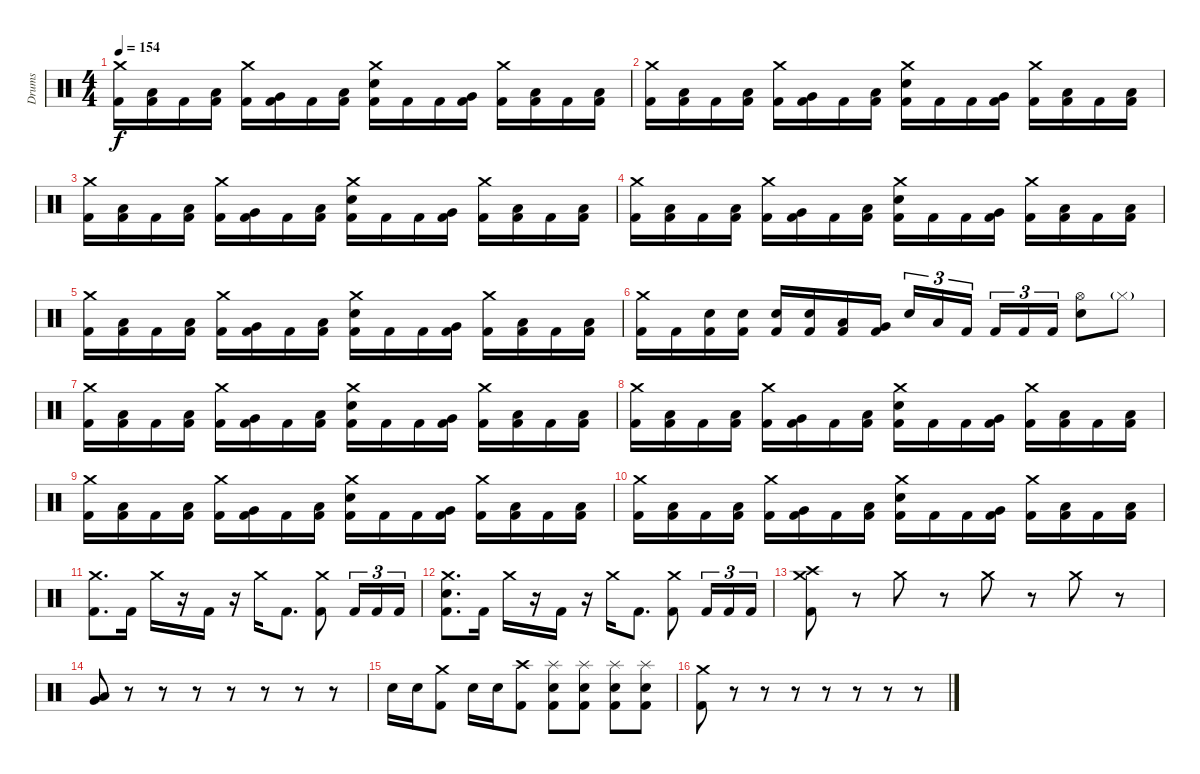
\track ("Drums" "Drums") {instrument percussion}
\staff {score}
\articulation defaults
\ts (4 4)
\tempo 154
\clef neutral
\ks c
("Crash medium (hit)" "Kick (hit) 2").16{dy f} ("Low Tom (hit)" "Kick (hit) 2").16 "Kick (hit) 2".16 ("Low Tom (hit)" "Kick (hit) 2").16 ("Crash medium (hit)" "Kick (hit) 2").16 ("Very Low Tom (hit)" "Kick (hit) 2").16 "Kick (hit) 2".16 ("Low Tom (hit)" "Kick (hit) 2").16 ("Crash medium (hit)" "Electric Snare (hit)" "Kick (hit) 2").16 "Kick (hit) 2".16 "Kick (hit) 2".16 ("Very Low Tom (hit)" "Kick (hit) 2").16 ("Crash medium (hit)" "Kick (hit) 2").16 ("Low Floor Tom (hit)" "Kick (hit) 2").16 "Kick (hit) 2".16 ("Low Tom (hit)" "Kick (hit) 2").16 |
("Crash medium (hit)" "Kick (hit) 2").16 ("Low Tom (hit)" "Kick (hit) 2").16 "Kick (hit) 2".16 ("Low Tom (hit)" "Kick (hit) 2").16 ("Crash medium (hit)" "Kick (hit) 2").16 ("Very Low Tom (hit)" "Kick (hit) 2").16 "Kick (hit) 2".16 ("Low Tom (hit)" "Kick (hit) 2").16 ("Crash medium (hit)" "Electric Snare (hit)" "Kick (hit) 2").16 "Kick (hit) 2".16 "Kick (hit) 2".16 ("Very Low Tom (hit)" "Kick (hit) 2").16 ("Crash medium (hit)" "Kick (hit) 2").16 ("Low Floor Tom (hit)" "Kick (hit) 2").16 "Kick (hit) 2".16 ("Low Tom (hit)" "Kick (hit) 2").16 |
("Crash medium (hit)" "Kick (hit) 2").16 ("Low Tom (hit)" "Kick (hit) 2").16 "Kick (hit) 2".16 ("Low Tom (hit)" "Kick (hit) 2").16 ("Crash medium (hit)" "Kick (hit) 2").16 ("Very Low Tom (hit)" "Kick (hit) 2").16 "Kick (hit) 2".16 ("Low Tom (hit)" "Kick (hit) 2").16 ("Crash medium (hit)" "Electric Snare (hit)" "Kick (hit) 2").16 "Kick (hit) 2".16 "Kick (hit) 2".16 ("Very Low Tom (hit)" "Kick (hit) 2").16 ("Crash medium (hit)" "Kick (hit) 2").16 ("Low Floor Tom (hit)" "Kick (hit) 2").16 "Kick (hit) 2".16 ("Low Tom (hit)" "Kick (hit) 2").16 |
("Crash medium (hit)" "Kick (hit) 2").16 ("Low Tom (hit)" "Kick (hit) 2").16 "Kick (hit) 2".16 ("Low Tom (hit)" "Kick (hit) 2").16 ("Crash medium (hit)" "Kick (hit) 2").16 ("Very Low Tom (hit)" "Kick (hit) 2").16 "Kick (hit) 2".16 ("Low Tom (hit)" "Kick (hit) 2").16 ("Crash medium (hit)" "Electric Snare (hit)" "Kick (hit) 2").16 "Kick (hit) 2".16 "Kick (hit) 2".16 ("Very Low Tom (hit)" "Kick (hit) 2").16 ("Crash medium (hit)" "Kick (hit) 2").16 ("Low Floor Tom (hit)" "Kick (hit) 2").16 "Kick (hit) 2".16 ("Low Tom (hit)" "Kick (hit) 2").16 |
("Crash medium (hit)" "Kick (hit) 2").16 ("Low Tom (hit)" "Kick (hit) 2").16 "Kick (hit) 2".16 ("Low Tom (hit)" "Kick (hit) 2").16 ("Crash medium (hit)" "Kick (hit) 2").16 ("Very Low Tom (hit)" "Kick (hit) 2").16 "Kick (hit) 2".16 ("Low Tom (hit)" "Kick (hit) 2").16 ("Crash medium (hit)" "Electric Snare (hit)" "Kick (hit) 2").16 "Kick (hit) 2".16 "Kick (hit) 2".16 ("Very Low Tom (hit)" "Kick (hit) 2").16 ("Crash medium (hit)" "Kick (hit) 2").16 ("Low Floor Tom (hit)" "Kick (hit) 2").16 "Kick (hit) 2".16 ("Low Tom (hit)" "Kick (hit) 2").16 |
("Crash medium (hit)" "Kick (hit) 2").16 "Kick (hit) 2".16 ("Electric Snare (hit)" "Kick (hit) 2").16 ("Electric Snare (hit)" "Kick (hit) 2").16 ("Electric Snare (hit)" "Kick (hit) 2").16 ("Electric Snare (hit)" "Kick (hit) 2").16 ("Low Tom (hit)" "Kick (hit) 2").16 ("Very Low Tom (hit)" "Kick (hit) 2").16 "Electric Snare (hit)".16{tu (3 2)} "Low Tom (hit)".16{tu (3 2)} "Kick (hit) 2".16{tu (3 2)} "Kick (hit) 2".16{tu (3 2)} "Kick (hit) 2".16{tu (3 2)} "Kick (hit) 2".16{tu (3 2)} ("Hi-Hat (open)" "Electric Snare (hit)").8 "Hi-Hat (closed)"{g}.8 |
("Crash medium (hit)" "Kick (hit) 2").16 ("Low Tom (hit)" "Kick (hit) 2").16 "Kick (hit) 2".16 ("Low Tom (hit)" "Kick (hit) 2").16 ("Crash medium (hit)" "Kick (hit) 2").16 ("Very Low Tom (hit)" "Kick (hit) 2").16 "Kick (hit) 2".16 ("Low Tom (hit)" "Kick (hit) 2").16 ("Crash medium (hit)" "Electric Snare (hit)" "Kick (hit) 2").16 "Kick (hit) 2".16 "Kick (hit) 2".16 ("Very Low Tom (hit)" "Kick (hit) 2").16 ("Crash medium (hit)" "Kick (hit) 2").16 ("Low Floor Tom (hit)" "Kick (hit) 2").16 "Kick (hit) 2".16 ("Low Tom (hit)" "Kick (hit) 2").16 |
("Crash medium (hit)" "Kick (hit) 2").16 ("Low Tom (hit)" "Kick (hit) 2").16 "Kick (hit) 2".16 ("Low Tom (hit)" "Kick (hit) 2").16 ("Crash medium (hit)" "Kick (hit) 2").16 ("Very Low Tom (hit)" "Kick (hit) 2").16 "Kick (hit) 2".16 ("Low Tom (hit)" "Kick (hit) 2").16 ("Crash medium (hit)" "Electric Snare (hit)" "Kick (hit) 2").16 "Kick (hit) 2".16 "Kick (hit) 2".16 ("Very Low Tom (hit)" "Kick (hit) 2").16 ("Crash medium (hit)" "Kick (hit) 2").16 ("Low Floor Tom (hit)" "Kick (hit) 2").16 "Kick (hit) 2".16 ("Low Tom (hit)" "Kick (hit) 2").16 |
("Crash medium (hit)" "Kick (hit) 2").16 ("Low Tom (hit)" "Kick (hit) 2").16 "Kick (hit) 2".16 ("Low Tom (hit)" "Kick (hit) 2").16 ("Crash medium (hit)" "Kick (hit) 2").16 ("Very Low Tom (hit)" "Kick (hit) 2").16 "Kick (hit) 2".16 ("Low Tom (hit)" "Kick (hit) 2").16 ("Crash medium (hit)" "Electric Snare (hit)" "Kick (hit) 2").16 "Kick (hit) 2".16 "Kick (hit) 2".16 ("Very Low Tom (hit)" "Kick (hit) 2").16 ("Crash medium (hit)" "Kick (hit) 2").16 ("Low Floor Tom (hit)" "Kick (hit) 2").16 "Kick (hit) 2".16 ("Low Tom (hit)" "Kick (hit) 2").16 |
("Crash medium (hit)" "Kick (hit) 2").16 ("Low Tom (hit)" "Kick (hit) 2").16 "Kick (hit) 2".16 ("Low Tom (hit)" "Kick (hit) 2").16 ("Crash medium (hit)" "Kick (hit) 2").16 ("Very Low Tom (hit)" "Kick (hit) 2").16 "Kick (hit) 2".16 ("Low Tom (hit)" "Kick (hit) 2").16 ("Crash medium (hit)" "Electric Snare (hit)" "Kick (hit) 2").16 "Kick (hit) 2".16 "Kick (hit) 2".16 ("Very Low Tom (hit)" "Kick (hit) 2").16 ("Crash medium (hit)" "Kick (hit) 2").16 ("Low Floor Tom (hit)" "Kick (hit) 2").16 "Kick (hit) 2".16 ("Low Tom (hit)" "Kick (hit) 2").16 |
("Crash medium (hit)" "Kick (hit) 2").8{d} "Kick (hit) 2".16 "Crash medium (hit)".16 r.16 "Kick (hit) 2".16 r.16 "Crash medium (hit)".16 "Kick (hit) 2".8{d} ("Crash medium (hit)" "Kick (hit) 2").8 "Kick (hit) 2".16{tu (3 2)} "Kick (hit) 2".16{tu (3 2)} "Kick (hit) 2".16{tu (3 2)} |
("Crash medium (hit)" "Electric Snare (hit)" "Kick (hit) 2").8{d} "Kick (hit) 2".16 "Crash medium (hit)".16 r.16 "Kick (hit) 2".16 r.16 "Crash medium (hit)".16 "Kick (hit) 2".8{d} ("Crash medium (hit)" "Kick (hit) 2").8 "Kick (hit) 2".16{tu (3 2)} "Kick (hit) 2".16{tu (3 2)} "Kick (hit) 2".16{tu (3 2)} |
("Crash medium (hit)" "Crash high (hit)" "Kick (hit) 2").8 r.8 "Crash medium (hit)".8 r.8 "Crash medium (hit)".8 r.8 "Crash medium (hit)".8 r.8 |
("Low Floor Tom (hit)" "Very Low Tom (hit)").8 r.8 r.8 r.8 r.8 r.8 r.8 r.8 |
"Electric Snare (hit)".16 "Electric Snare (hit)".16 ("Crash medium (hit)" "Kick (hit) 2").8 "Electric Snare (hit)".16 "Electric Snare (hit)".16 ("Crash high (hit)" "Kick (hit) 2").8 ("Splash (hit)" "Electric Snare (hit)" "Kick (hit) 2").8 ("Splash (hit)" "Electric Snare (hit)" "Kick (hit) 2").8 ("Splash (hit)" "Electric Snare (hit)" "Kick (hit) 2").8 ("Splash (hit)" "Electric Snare (hit)" "Kick (hit) 2").8 |
("Crash medium (hit)" "Kick (hit) 2").8 r.8 r.8 r.8 r.8 r.8 r.8 r.8
